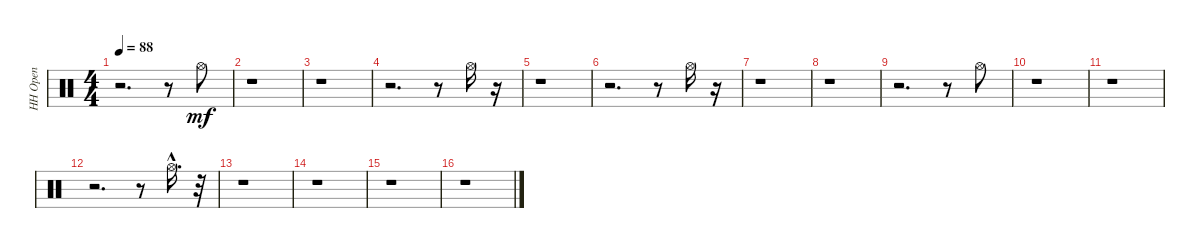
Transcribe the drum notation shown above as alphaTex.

\track ("HH Open" "HH Open") {instrument percussion}
\staff {score}
\articulation defaults
\ts (4 4)
\tempo 88
\clef neutral
\ks c
r.2{d dy mf} r.8 "Hi-Hat (open)".8 |
r.1 |
r.1 |
r.2{d} r.8 "Hi-Hat (open)".16 r.16 |
r.1 |
r.2{d} r.8 "Hi-Hat (open)".16 r.16 |
r.1 |
r.1 |
r.2{d} r.8 "Hi-Hat (open)".8 |
r.1 |
r.1 |
r.2{d} r.8 "Hi-Hat (open)"{hac}.16{d} r.32 |
r.1 |
r.1 |
r.1 |
r.1
